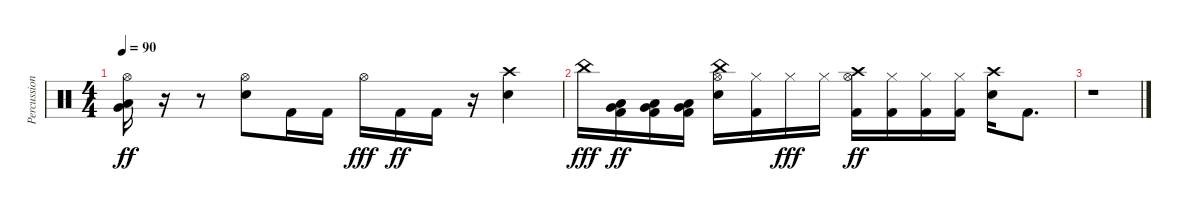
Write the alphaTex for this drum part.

\track ("Percussion" "Percussion") {instrument percussion}
\staff {score}
\articulation defaults
\ts (4 4)
\tempo 90
\clef neutral
\ks c
("Hi-Hat (open)" "Very Low Tom (hit)" "Low Floor Tom (hit)").16{dy ff} r.16 r.8 ("Hi-Hat (open)" "Electric Snare (hit)").8 "Kick (hit) 2".16 "Kick (hit) 2".16 "Hi-Hat (open)".16{dy fff} "Kick (hit) 2".16{dy ff} "Kick (hit) 2".16 r.16 ("Crash high (hit)" "Electric Snare (hit)").4 |
"China (hit)".16{dy fff} ("Low Floor Tom (hit)" "Very Low Tom (hit)" "Kick (hit) 2").16{dy ff} ("Low Floor Tom (hit)" "Very Low Tom (hit)" "Kick (hit) 2").16 ("Low Floor Tom (hit)" "Very Low Tom (hit)" "Kick (hit) 2").16 ("China (hit)" "Hi-Hat (open)" "Electric Snare (hit)").16 ("Hi-Hat (closed)" "Kick (hit) 2").16 "Hi-Hat (closed)".16{dy fff} "Hi-Hat (closed)".16 ("Crash high (hit)" "Hi-Hat (open)" "Kick (hit) 2").16{dy ff} ("Hi-Hat (closed)" "Kick (hit) 2").16 ("Hi-Hat (closed)" "Kick (hit) 2").16 ("Hi-Hat (closed)" "Kick (hit) 2").16 ("Crash high (hit)" "Electric Snare (hit)").16 "Kick (hit) 2".8{d} |
r.1
